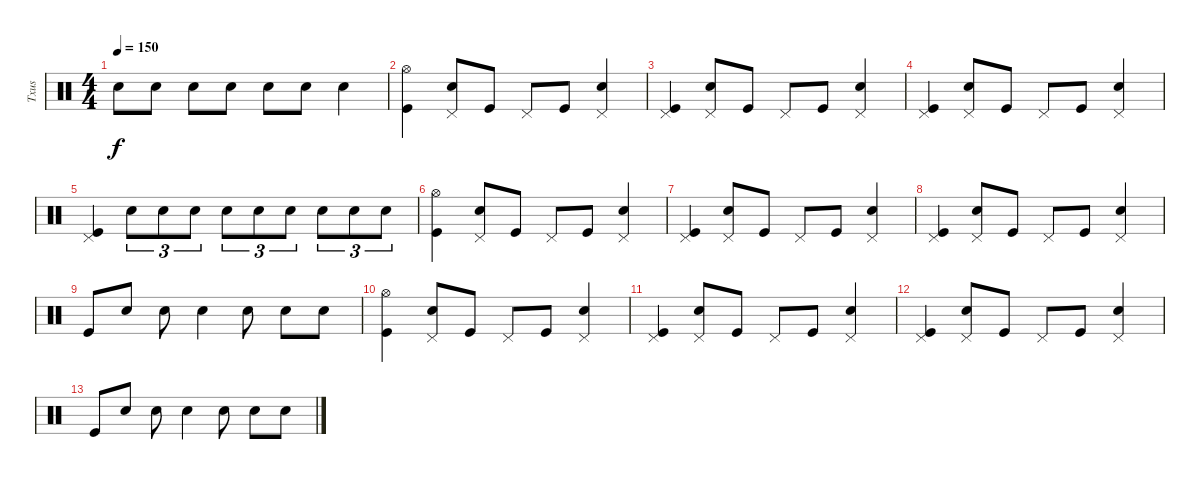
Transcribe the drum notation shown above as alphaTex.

\track ("Txus" "Txus") {instrument percussion}
\staff {score}
\articulation defaults
\ts (4 4)
\tempo 150
\clef neutral
\ks c "Snare (hit) 2".8{dy f} "Snare (hit) 2".8 "Snare (hit) 2".8 "Snare (hit) 2".8 "Snare (hit) 2".8 "Snare (hit) 2".8 "Snare (hit) 2".4
|
("Kick (hit)" "Hi-Hat (open)").4 ("Snare (hit) 2" "Pedal Hi-Hat (hit)").8 "Kick (hit)".8 "Pedal Hi-Hat (hit)".8 "Kick (hit)".8 ("Snare (hit) 2" "Pedal Hi-Hat (hit)").4 |
("Kick (hit)" "Pedal Hi-Hat (hit)").4 ("Snare (hit) 2" "Pedal Hi-Hat (hit)").8 "Kick (hit)".8 "Pedal Hi-Hat (hit)".8 "Kick (hit)".8 ("Snare (hit) 2" "Pedal Hi-Hat (hit)").4 |
("Kick (hit)" "Pedal Hi-Hat (hit)").4 ("Snare (hit) 2" "Pedal Hi-Hat (hit)").8 "Kick (hit)".8 "Pedal Hi-Hat (hit)".8 "Kick (hit)".8 ("Snare (hit) 2" "Pedal Hi-Hat (hit)").4 |
("Kick (hit)" "Pedal Hi-Hat (hit)").4 "Snare (hit) 2".8{tu (3 2)} "Snare (hit) 2".8{tu (3 2)} "Snare (hit) 2".8{tu (3 2)} "Snare (hit) 2".8{tu (3 2)} "Snare (hit) 2".8{tu (3 2)} "Snare (hit) 2".8{tu (3 2)} "Snare (hit) 2".8{tu (3 2)} "Snare (hit) 2".8{tu (3 2)} "Snare (hit) 2".8{tu (3 2)} |
("Kick (hit)" "Hi-Hat (open)").4 ("Snare (hit) 2" "Pedal Hi-Hat (hit)").8 "Kick (hit)".8 "Pedal Hi-Hat (hit)".8 "Kick (hit)".8 ("Snare (hit) 2" "Pedal Hi-Hat (hit)").4 |
("Kick (hit)" "Pedal Hi-Hat (hit)").4 ("Snare (hit) 2" "Pedal Hi-Hat (hit)").8 "Kick (hit)".8 "Pedal Hi-Hat (hit)".8 "Kick (hit)".8 ("Snare (hit) 2" "Pedal Hi-Hat (hit)").4 |
("Kick (hit)" "Pedal Hi-Hat (hit)").4 ("Snare (hit) 2" "Pedal Hi-Hat (hit)").8 "Kick (hit)".8 "Pedal Hi-Hat (hit)".8 "Kick (hit)".8 ("Snare (hit) 2" "Pedal Hi-Hat (hit)").4 |
"Kick (hit)".8 "Snare (hit) 2".8 "Snare (hit) 2".8 "Snare (hit) 2".4 "Snare (hit) 2".8 "Snare (hit) 2".8 "Snare (hit) 2".8 |
("Kick (hit)" "Hi-Hat (open)").4 ("Snare (hit) 2" "Pedal Hi-Hat (hit)").8 "Kick (hit)".8 "Pedal Hi-Hat (hit)".8 "Kick (hit)".8 ("Snare (hit) 2" "Pedal Hi-Hat (hit)").4 |
("Kick (hit)" "Pedal Hi-Hat (hit)").4 ("Snare (hit) 2" "Pedal Hi-Hat (hit)").8 "Kick (hit)".8 "Pedal Hi-Hat (hit)".8 "Kick (hit)".8 ("Snare (hit) 2" "Pedal Hi-Hat (hit)").4 |
("Kick (hit)" "Pedal Hi-Hat (hit)").4 ("Snare (hit) 2" "Pedal Hi-Hat (hit)").8 "Kick (hit)".8 "Pedal Hi-Hat (hit)".8 "Kick (hit)".8 ("Snare (hit) 2" "Pedal Hi-Hat (hit)").4 |
"Kick (hit)".8 "Snare (hit) 2".8 "Snare (hit) 2".8 "Snare (hit) 2".4 "Snare (hit) 2".8 "Snare (hit) 2".8 "Snare (hit) 2".8
